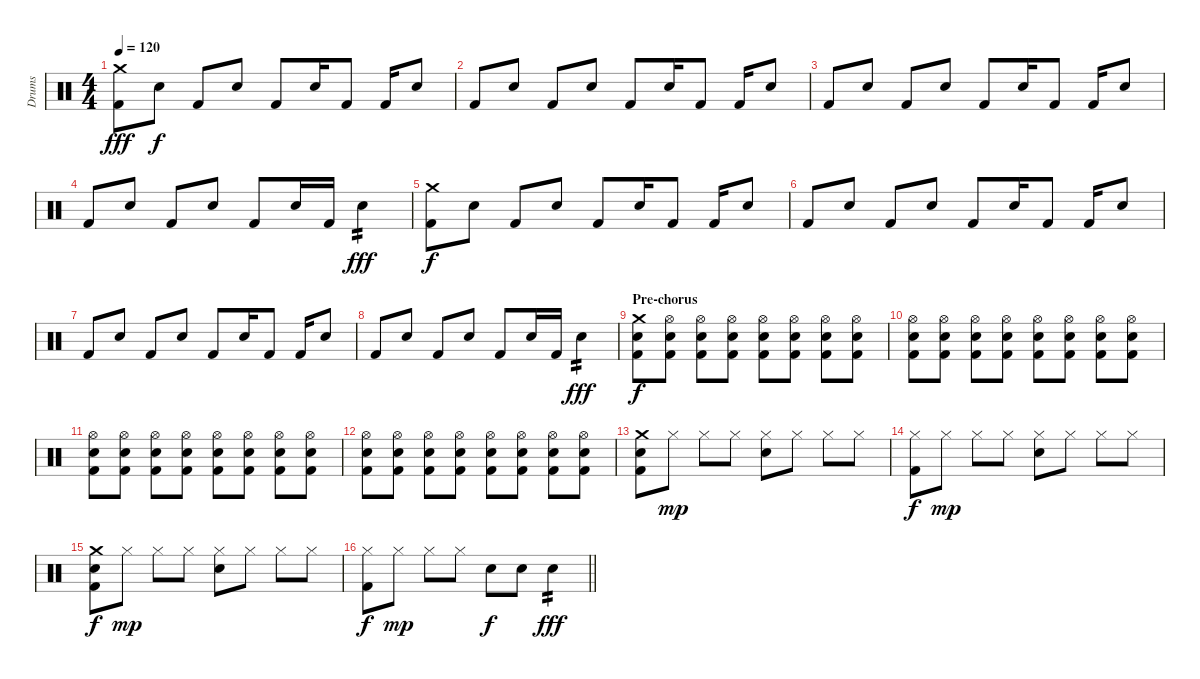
\track ("Drums" "Drums") {instrument percussion}
\staff {score}
\articulation defaults
\ts (4 4)
\tempo 120
\clef neutral
\ks c
("Crash medium (hit)" "Kick (hit) 2").8{dy fff} "Snare (hit) 2".8{dy f} "Kick (hit) 2".8 "Snare (hit) 2".8 "Kick (hit) 2".8 "Snare (hit) 2".16 "Kick (hit) 2".8 "Kick (hit) 2".16 "Snare (hit) 2".8 |
"Kick (hit) 2".8 "Snare (hit) 2".8 "Kick (hit) 2".8 "Snare (hit) 2".8 "Kick (hit) 2".8 "Snare (hit) 2".16 "Kick (hit) 2".8 "Kick (hit) 2".16 "Snare (hit) 2".8 |
"Kick (hit) 2".8 "Snare (hit) 2".8 "Kick (hit) 2".8 "Snare (hit) 2".8 "Kick (hit) 2".8 "Snare (hit) 2".16 "Kick (hit) 2".8 "Kick (hit) 2".16 "Snare (hit) 2".8 |
"Kick (hit) 2".8 "Snare (hit) 2".8 "Kick (hit) 2".8 "Snare (hit) 2".8 "Kick (hit) 2".8 "Snare (hit) 2".16 "Kick (hit) 2".16 "Snare (hit) 2".4{tp 2 dy fff} |
("Crash medium (hit)" "Kick (hit) 2").8{dy f} "Snare (hit) 2".8 "Kick (hit) 2".8 "Snare (hit) 2".8 "Kick (hit) 2".8 "Snare (hit) 2".16 "Kick (hit) 2".8 "Kick (hit) 2".16 "Snare (hit) 2".8 |
"Kick (hit) 2".8 "Snare (hit) 2".8 "Kick (hit) 2".8 "Snare (hit) 2".8 "Kick (hit) 2".8 "Snare (hit) 2".16 "Kick (hit) 2".8 "Kick (hit) 2".16 "Snare (hit) 2".8 |
"Kick (hit) 2".8 "Snare (hit) 2".8 "Kick (hit) 2".8 "Snare (hit) 2".8 "Kick (hit) 2".8 "Snare (hit) 2".16 "Kick (hit) 2".8 "Kick (hit) 2".16 "Snare (hit) 2".8 |
"Kick (hit) 2".8 "Snare (hit) 2".8 "Kick (hit) 2".8 "Snare (hit) 2".8 "Kick (hit) 2".8 "Snare (hit) 2".16 "Kick (hit) 2".16 "Snare (hit) 2".4{tp 2 dy fff} |
\section ("" "Pre-chorus")
("Crash medium (hit)" "Snare (hit) 2" "Kick (hit) 2").8{dy f} ("Hi-Hat (open)" "Snare (hit) 2" "Kick (hit) 2").8 ("Hi-Hat (open)" "Snare (hit) 2" "Kick (hit) 2").8 ("Hi-Hat (open)" "Snare (hit) 2" "Kick (hit) 2").8 ("Hi-Hat (open)" "Snare (hit) 2" "Kick (hit) 2").8 ("Hi-Hat (open)" "Snare (hit) 2" "Kick (hit) 2").8 ("Hi-Hat (open)" "Snare (hit) 2" "Kick (hit) 2").8 ("Hi-Hat (open)" "Snare (hit) 2" "Kick (hit) 2").8 |
("Hi-Hat (open)" "Snare (hit) 2" "Kick (hit) 2").8 ("Hi-Hat (open)" "Snare (hit) 2" "Kick (hit) 2").8 ("Hi-Hat (open)" "Snare (hit) 2" "Kick (hit) 2").8 ("Hi-Hat (open)" "Snare (hit) 2" "Kick (hit) 2").8 ("Hi-Hat (open)" "Snare (hit) 2" "Kick (hit) 2").8 ("Hi-Hat (open)" "Snare (hit) 2" "Kick (hit) 2").8 ("Hi-Hat (open)" "Snare (hit) 2" "Kick (hit) 2").8 ("Hi-Hat (open)" "Snare (hit) 2" "Kick (hit) 2").8 |
("Hi-Hat (open)" "Snare (hit) 2" "Kick (hit) 2").8 ("Hi-Hat (open)" "Snare (hit) 2" "Kick (hit) 2").8 ("Hi-Hat (open)" "Snare (hit) 2" "Kick (hit) 2").8 ("Hi-Hat (open)" "Snare (hit) 2" "Kick (hit) 2").8 ("Hi-Hat (open)" "Snare (hit) 2" "Kick (hit) 2").8 ("Hi-Hat (open)" "Snare (hit) 2" "Kick (hit) 2").8 ("Hi-Hat (open)" "Snare (hit) 2" "Kick (hit) 2").8 ("Hi-Hat (open)" "Snare (hit) 2" "Kick (hit) 2").8 |
("Hi-Hat (open)" "Snare (hit) 2" "Kick (hit) 2").8 ("Hi-Hat (open)" "Snare (hit) 2" "Kick (hit) 2").8 ("Hi-Hat (open)" "Snare (hit) 2" "Kick (hit) 2").8 ("Hi-Hat (open)" "Snare (hit) 2" "Kick (hit) 2").8 ("Hi-Hat (open)" "Snare (hit) 2" "Kick (hit) 2").8 ("Hi-Hat (open)" "Snare (hit) 2" "Kick (hit) 2").8 ("Hi-Hat (open)" "Snare (hit) 2" "Kick (hit) 2").8 ("Hi-Hat (open)" "Snare (hit) 2" "Kick (hit) 2").8 |
("Crash medium (hit)" "Snare (hit) 2" "Kick (hit) 2").8 "Hi-Hat (closed)".8{dy mp} "Hi-Hat (closed)".8 "Hi-Hat (closed)".8 ("Hi-Hat (closed)" "Snare (hit) 2").8 "Hi-Hat (closed)".8 "Hi-Hat (closed)".8 "Hi-Hat (closed)".8 |
("Hi-Hat (closed)" "Kick (hit) 2").8{dy f} "Hi-Hat (closed)".8{dy mp} "Hi-Hat (closed)".8 "Hi-Hat (closed)".8 ("Hi-Hat (closed)" "Snare (hit) 2").8 "Hi-Hat (closed)".8 "Hi-Hat (closed)".8 "Hi-Hat (closed)".8 |
("Crash medium (hit)" "Snare (hit) 2" "Kick (hit) 2").8{dy f} "Hi-Hat (closed)".8{dy mp} "Hi-Hat (closed)".8 "Hi-Hat (closed)".8 ("Hi-Hat (closed)" "Snare (hit) 2").8 "Hi-Hat (closed)".8 "Hi-Hat (closed)".8 "Hi-Hat (closed)".8 |
\barLineRight lightlight
("Hi-Hat (closed)" "Kick (hit) 2").8{dy f} "Hi-Hat (closed)".8{dy mp} "Hi-Hat (closed)".8 "Hi-Hat (closed)".8 "Snare (hit) 2".8{dy f} "Snare (hit) 2".8 "Snare (hit) 2".4{tp 2 dy fff}
